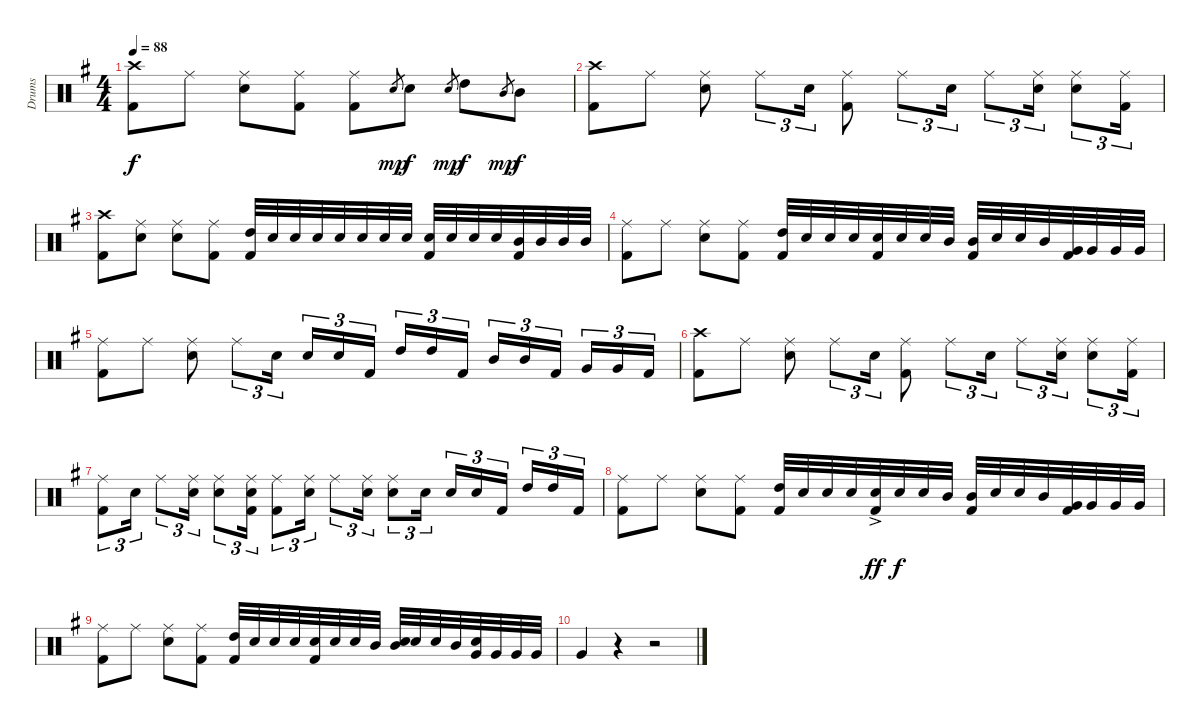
\track ("Drums" "Drums") {instrument percussion}
\staff {score}
\articulation defaults
\ts (4 4)
\tempo 88
\clef neutral
\ks g
("Crash high (hit)" "Kick (hit) 2").8{dy f} "Ride (middle)".8 ("Ride (middle)" "Electric Snare (hit)").8 ("Ride (middle)" "Kick (hit) 2").8 ("Ride (middle)" "Kick (hit) 2").8 "Electric Snare (hit)".8{gr dy mp} "Electric Snare (hit)".8{dy f} "Electric Snare (hit)".8{gr dy mp} "High Tom (hit)".8{dy f} "Mid Tom (hit)".8{gr dy mp} "Mid Tom (hit)".8{dy f} |
("Crash high (hit)" "Kick (hit) 2").8 "Ride (middle)".8 ("Ride (middle)" "Electric Snare (hit)").8 "Ride (middle)".8{tu (3 2)} "Electric Snare (hit)".16{tu (3 2)} ("Ride (middle)" "Kick (hit) 2").8 "Ride (middle)".8{tu (3 2)} "Electric Snare (hit)".16{tu (3 2)} "Ride (middle)".8{tu (3 2)} ("Ride (middle)" "Electric Snare (hit)").16{tu (3 2)} ("Ride (middle)" "Electric Snare (hit)").8{tu (3 2)} ("Ride (middle)" "Kick (hit) 2").16{tu (3 2)} |
("Crash high (hit)" "Kick (hit) 2").8 ("Ride (middle)" "Electric Snare (hit)").8 ("Ride (middle)" "Electric Snare (hit)").8 ("Ride (middle)" "Kick (hit) 2").8 ("High Tom (hit)" "Kick (hit) 2").32 "Electric Snare (hit)".32 "Electric Snare (hit)".32 "Electric Snare (hit)".32 "Electric Snare (hit)".32 "Electric Snare (hit)".32 "Electric Snare (hit)".32 "Electric Snare (hit)".32 ("Electric Snare (hit)" "Kick (hit) 2").32 "Electric Snare (hit)".32 "Electric Snare (hit)".32 "Electric Snare (hit)".32 ("Mid Tom (hit)" "Kick (hit) 2").32 "Mid Tom (hit)".32 "Mid Tom (hit)".32 "Mid Tom (hit)".32 |
("Ride (middle)" "Kick (hit) 2").8 "Ride (middle)".8 ("Ride (middle)" "Electric Snare (hit)").8 ("Ride (middle)" "Kick (hit) 2").8 ("High Tom (hit)" "Kick (hit) 2").32 "Electric Snare (hit)".32 "Electric Snare (hit)".32 "Electric Snare (hit)".32 ("Electric Snare (hit)" "Kick (hit) 2").32 "Electric Snare (hit)".32 "Electric Snare (hit)".32 "Mid Tom (hit)".32 ("Mid Tom (hit)" "Kick (hit) 2").32 "Electric Snare (hit)".32 "Electric Snare (hit)".32 "Mid Tom (hit)".32 ("Very Low Tom (hit)" "Kick (hit) 2").32 "Very Low Tom (hit)".32 "Very Low Tom (hit)".32 "Very Low Tom (hit)".32 |
("Ride (middle)" "Kick (hit) 2").8 "Ride (middle)".8 ("Ride (middle)" "Electric Snare (hit)").8 "Ride (middle)".8{tu (3 2)} "Electric Snare (hit)".16{tu (3 2)} "Electric Snare (hit)".16{tu (3 2)} "Electric Snare (hit)".16{tu (3 2)} "Kick (hit) 2".16{tu (3 2) beam splitsecondary} "High Tom (hit)".16{tu (3 2)} "High Tom (hit)".16{tu (3 2)} "Kick (hit) 2".16{tu (3 2)} "Mid Tom (hit)".16{tu (3 2)} "Mid Tom (hit)".16{tu (3 2)} "Kick (hit) 2".16{tu (3 2) beam splitsecondary} "Very Low Tom (hit)".16{tu (3 2)} "Very Low Tom (hit)".16{tu (3 2)} "Kick (hit) 2".16{tu (3 2)} |
("Crash high (hit)" "Kick (hit) 2").8 "Ride (middle)".8 ("Ride (middle)" "Electric Snare (hit)").8 "Ride (middle)".8{tu (3 2)} "Electric Snare (hit)".16{tu (3 2)} ("Ride (middle)" "Kick (hit) 2").8 "Ride (middle)".8{tu (3 2)} "Electric Snare (hit)".16{tu (3 2)} "Ride (middle)".8{tu (3 2)} ("Ride (middle)" "Electric Snare (hit)").16{tu (3 2)} ("Ride (middle)" "Electric Snare (hit)").8{tu (3 2)} ("Ride (middle)" "Kick (hit) 2").16{tu (3 2)} |
("Ride (middle)" "Kick (hit) 2").8{tu (3 2) volume 0} "Electric Snare (hit)".16{tu (3 2)} "Ride (middle)".8{tu (3 2)} ("Ride (middle)" "Electric Snare (hit)").16{tu (3 2)} ("Ride (middle)" "Electric Snare (hit)").8{tu (3 2)} ("Ride (middle)" "Electric Snare (hit)" "Kick (hit) 2").16{tu (3 2)} ("Ride (middle)" "Kick (hit) 2").8{tu (3 2)} ("Ride (middle)" "Electric Snare (hit)").16{tu (3 2)} "Ride (middle)".8{tu (3 2)} ("Ride (middle)" "Electric Snare (hit)").16{tu (3 2)} ("Ride (middle)" "Electric Snare (hit)").8{tu (3 2)} "Electric Snare (hit)".16{tu (3 2)} "Electric Snare (hit)".16{tu (3 2)} "Electric Snare (hit)".16{tu (3 2)} "Kick (hit) 2".16{tu (3 2) beam splitsecondary} "High Tom (hit)".16{tu (3 2)} "High Tom (hit)".16{tu (3 2)} "Kick (hit) 2".16{tu (3 2)} |
("Ride (middle)" "Kick (hit) 2").8 "Ride (middle)".8 ("Ride (middle)" "Electric Snare (hit)").8 ("Ride (middle)" "Kick (hit) 2").8 ("High Tom (hit)" "Kick (hit) 2").32 "Electric Snare (hit)".32 "Electric Snare (hit)".32 "Electric Snare (hit)".32 ("Electric Snare (hit)"{ac} "Kick (hit) 2").32{dy ff} "Electric Snare (hit)".32{dy f} "Electric Snare (hit)".32 "Mid Tom (hit)".32 ("Mid Tom (hit)" "Kick (hit) 2").32 "Electric Snare (hit)".32 "Electric Snare (hit)".32 "Mid Tom (hit)".32 ("Very Low Tom (hit)" "Kick (hit) 2").32 "Very Low Tom (hit)".32 "Very Low Tom (hit)".32 "Very Low Tom (hit)".32 |
("Ride (middle)" "Kick (hit) 2").8 "Ride (middle)".8 ("Ride (middle)" "Electric Snare (hit)").8 ("Ride (middle)" "Kick (hit) 2").8 ("High Tom (hit)" "Kick (hit) 2").32 "Electric Snare (hit)".32 "Electric Snare (hit)".32 "Electric Snare (hit)".32 ("Electric Snare (hit)" "Kick (hit) 2").32 "Electric Snare (hit)".32 "Electric Snare (hit)".32 "Mid Tom (hit)".32 ("Mid Tom (hit)" "Electric Snare (hit)").32 "Electric Snare (hit)".32 "Electric Snare (hit)".32 "Mid Tom (hit)".32 ("Very Low Tom (hit)" "Electric Snare (hit)").32 "Very Low Tom (hit)".32 "Very Low Tom (hit)".32 "Very Low Tom (hit)".32 |
"Very Low Tom (hit)".4 r.4 r.2
